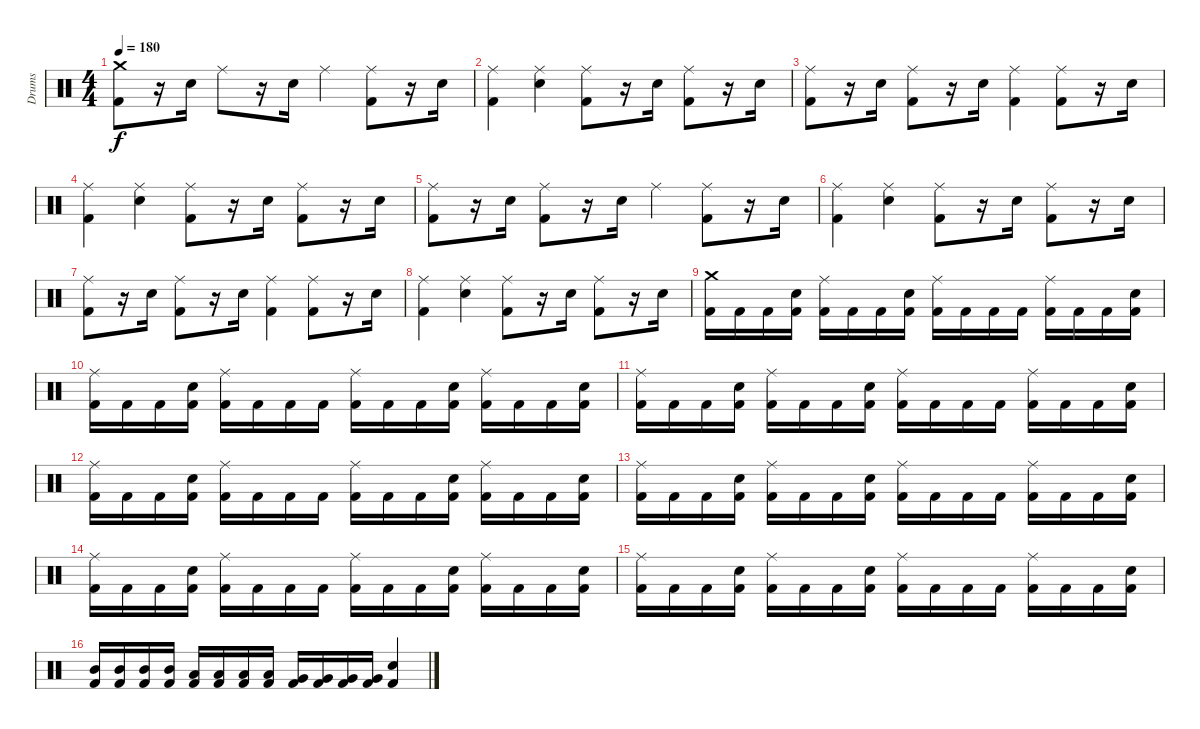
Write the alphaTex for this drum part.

\track ("Drums" "Drums") {instrument percussion}
\staff {score}
\articulation defaults
\ts (4 4)
\tempo 180
\clef neutral
\ks c
("Crash medium (hit)" "Kick (hit) 2").8{dy f} r.16 "Electric Snare (hit)".16 "Ride (middle)".8 r.16 "Electric Snare (hit)".16 "Ride (middle)".4 ("Ride (middle)" "Kick (hit) 2").8 r.16 "Electric Snare (hit)".16 |
("Ride (middle)" "Kick (hit) 2").4 ("Ride (middle)" "Electric Snare (hit)").4 ("Ride (middle)" "Kick (hit) 2").8 r.16 "Electric Snare (hit)".16 ("Ride (middle)" "Kick (hit) 2").8 r.16 "Electric Snare (hit)".16 |
("Ride (middle)" "Kick (hit) 2").8 r.16 "Electric Snare (hit)".16 ("Ride (middle)" "Kick (hit) 2").8 r.16 "Electric Snare (hit)".16 ("Ride (middle)" "Kick (hit) 2").4 ("Ride (middle)" "Kick (hit) 2").8 r.16 "Electric Snare (hit)".16 |
("Ride (middle)" "Kick (hit) 2").4 ("Ride (middle)" "Electric Snare (hit)").4 ("Ride (middle)" "Kick (hit) 2").8 r.16 "Electric Snare (hit)".16 ("Ride (middle)" "Kick (hit) 2").8 r.16 "Electric Snare (hit)".16 |
("Ride (middle)" "Kick (hit) 2").8 r.16 "Electric Snare (hit)".16 ("Ride (middle)" "Kick (hit) 2").8 r.16 "Electric Snare (hit)".16 "Ride (middle)".4 ("Ride (middle)" "Kick (hit) 2").8 r.16 "Electric Snare (hit)".16 |
("Ride (middle)" "Kick (hit) 2").4 ("Ride (middle)" "Electric Snare (hit)").4 ("Ride (middle)" "Kick (hit) 2").8 r.16 "Electric Snare (hit)".16 ("Ride (middle)" "Kick (hit) 2").8 r.16 "Electric Snare (hit)".16 |
("Ride (middle)" "Kick (hit) 2").8 r.16 "Electric Snare (hit)".16 ("Ride (middle)" "Kick (hit) 2").8 r.16 "Electric Snare (hit)".16 ("Ride (middle)" "Kick (hit) 2").4 ("Ride (middle)" "Kick (hit) 2").8 r.16 "Electric Snare (hit)".16 |
("Ride (middle)" "Kick (hit) 2").4 ("Ride (middle)" "Electric Snare (hit)").4 ("Ride (middle)" "Kick (hit) 2").8 r.16 "Electric Snare (hit)".16 ("Ride (middle)" "Kick (hit) 2").8 r.16 "Electric Snare (hit)".16 |
("Crash medium (hit)" "Kick (hit) 2").16 "Kick (hit) 2".16 "Kick (hit) 2".16 ("Electric Snare (hit)" "Kick (hit) 2").16 ("Ride (middle)" "Kick (hit) 2").16 "Kick (hit) 2".16 "Kick (hit) 2".16 ("Electric Snare (hit)" "Kick (hit) 2").16 ("Ride (middle)" "Kick (hit) 2").16 "Kick (hit) 2".16 "Kick (hit) 2".16 "Kick (hit) 2".16 ("Ride (middle)" "Kick (hit) 2").16 "Kick (hit) 2".16 "Kick (hit) 2".16 ("Electric Snare (hit)" "Kick (hit) 2").16 |
("Ride (middle)" "Kick (hit) 2").16 "Kick (hit) 2".16 "Kick (hit) 2".16 ("Electric Snare (hit)" "Kick (hit) 2").16 ("Ride (middle)" "Kick (hit) 2").16 "Kick (hit) 2".16 "Kick (hit) 2".16 "Kick (hit) 2".16 ("Ride (middle)" "Kick (hit) 2").16 "Kick (hit) 2".16 "Kick (hit) 2".16 ("Electric Snare (hit)" "Kick (hit) 2").16 ("Ride (middle)" "Kick (hit) 2").16 "Kick (hit) 2".16 "Kick (hit) 2".16 ("Electric Snare (hit)" "Kick (hit) 2").16 |
("Ride (middle)" "Kick (hit) 2").16 "Kick (hit) 2".16 "Kick (hit) 2".16 ("Electric Snare (hit)" "Kick (hit) 2").16 ("Ride (middle)" "Kick (hit) 2").16 "Kick (hit) 2".16 "Kick (hit) 2".16 ("Electric Snare (hit)" "Kick (hit) 2").16 ("Ride (middle)" "Kick (hit) 2").16 "Kick (hit) 2".16 "Kick (hit) 2".16 "Kick (hit) 2".16 ("Ride (middle)" "Kick (hit) 2").16 "Kick (hit) 2".16 "Kick (hit) 2".16 ("Electric Snare (hit)" "Kick (hit) 2").16 |
("Ride (middle)" "Kick (hit) 2").16 "Kick (hit) 2".16 "Kick (hit) 2".16 ("Electric Snare (hit)" "Kick (hit) 2").16 ("Ride (middle)" "Kick (hit) 2").16 "Kick (hit) 2".16 "Kick (hit) 2".16 "Kick (hit) 2".16 ("Ride (middle)" "Kick (hit) 2").16 "Kick (hit) 2".16 "Kick (hit) 2".16 ("Electric Snare (hit)" "Kick (hit) 2").16 ("Ride (middle)" "Kick (hit) 2").16 "Kick (hit) 2".16 "Kick (hit) 2".16 ("Electric Snare (hit)" "Kick (hit) 2").16 |
("Ride (middle)" "Kick (hit) 2").16 "Kick (hit) 2".16 "Kick (hit) 2".16 ("Electric Snare (hit)" "Kick (hit) 2").16 ("Ride (middle)" "Kick (hit) 2").16 "Kick (hit) 2".16 "Kick (hit) 2".16 ("Electric Snare (hit)" "Kick (hit) 2").16 ("Ride (middle)" "Kick (hit) 2").16 "Kick (hit) 2".16 "Kick (hit) 2".16 "Kick (hit) 2".16 ("Ride (middle)" "Kick (hit) 2").16 "Kick (hit) 2".16 "Kick (hit) 2".16 ("Electric Snare (hit)" "Kick (hit) 2").16 |
("Ride (middle)" "Kick (hit) 2").16 "Kick (hit) 2".16 "Kick (hit) 2".16 ("Electric Snare (hit)" "Kick (hit) 2").16 ("Ride (middle)" "Kick (hit) 2").16 "Kick (hit) 2".16 "Kick (hit) 2".16 "Kick (hit) 2".16 ("Ride (middle)" "Kick (hit) 2").16 "Kick (hit) 2".16 "Kick (hit) 2".16 ("Electric Snare (hit)" "Kick (hit) 2").16 ("Ride (middle)" "Kick (hit) 2").16 "Kick (hit) 2".16 "Kick (hit) 2".16 ("Electric Snare (hit)" "Kick (hit) 2").16 |
("Ride (middle)" "Kick (hit) 2").16 "Kick (hit) 2".16 "Kick (hit) 2".16 ("Electric Snare (hit)" "Kick (hit) 2").16 ("Ride (middle)" "Kick (hit) 2").16 "Kick (hit) 2".16 "Kick (hit) 2".16 ("Electric Snare (hit)" "Kick (hit) 2").16 ("Ride (middle)" "Kick (hit) 2").16 "Kick (hit) 2".16 "Kick (hit) 2".16 "Kick (hit) 2".16 ("Ride (middle)" "Kick (hit) 2").16 "Kick (hit) 2".16 "Kick (hit) 2".16 ("Electric Snare (hit)" "Kick (hit) 2").16 |
("Mid Tom (hit)" "Kick (hit) 2").16 ("Mid Tom (hit)" "Kick (hit) 2").16 ("Mid Tom (hit)" "Kick (hit) 2").16 ("Mid Tom (hit)" "Kick (hit) 2").16 ("Low Tom (hit)" "Kick (hit) 2").16 ("Low Tom (hit)" "Kick (hit) 2").16 ("Low Tom (hit)" "Kick (hit) 2").16 ("Low Tom (hit)" "Kick (hit) 2").16 ("Very Low Tom (hit)" "Kick (hit) 2").16 ("Very Low Tom (hit)" "Kick (hit) 2").16 ("Very Low Tom (hit)" "Kick (hit) 2").16 ("Very Low Tom (hit)" "Kick (hit) 2").16 ("Electric Snare (hit)" "Kick (hit) 2").4
